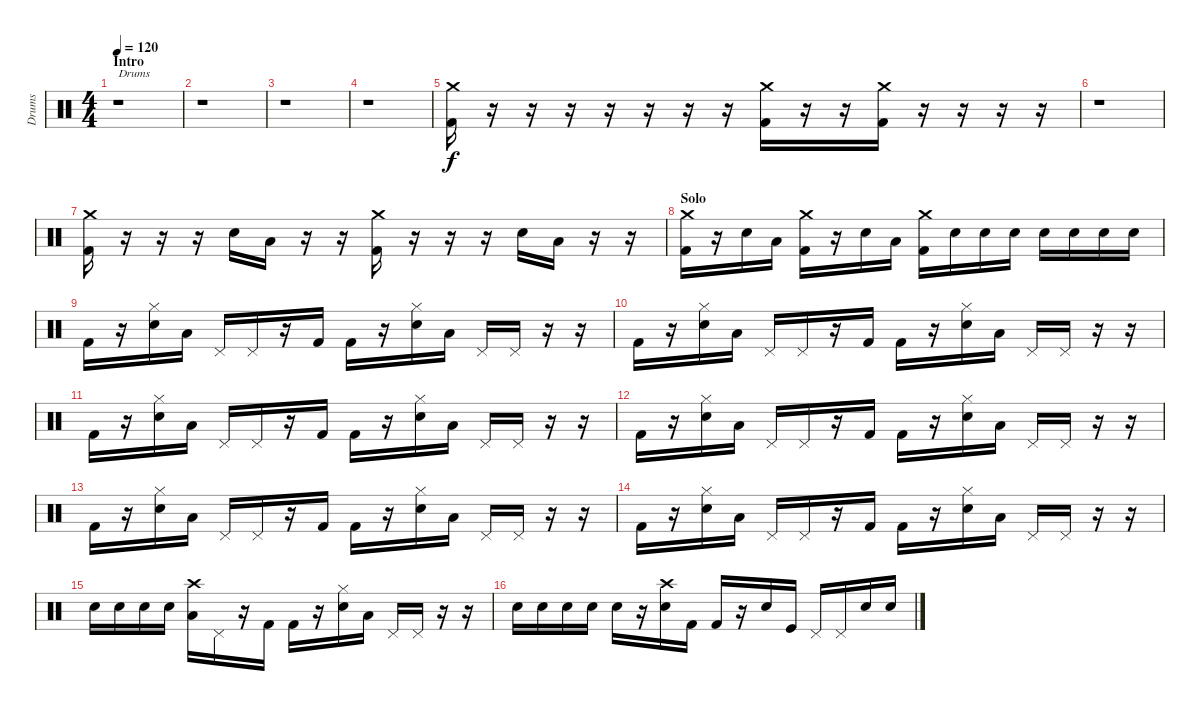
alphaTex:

\track ("Drums" "Drums") {instrument percussion}
\staff {score}
\articulation defaults
\ts (4 4)
\section ("" "Intro")
\tempo 120
\clef neutral
\ks c
r.1{txt "Drums" dy f} |
r.1 |
r.1 |
r.1 |
("Crash medium (hit)" "Kick (hit) 2").16 r.16 r.16 r.16 r.16 r.16 r.16 r.16 ("Crash medium (hit)" "Kick (hit) 2").16 r.16 r.16 ("Crash medium (hit)" "Kick (hit) 2").16 r.16 r.16 r.16 r.16 |
r.1 |
("Crash medium (hit)" "Kick (hit) 2").16 r.16 r.16 r.16 "Snare (hit) 2".16 "Low Tom (hit)".16 r.16 r.16 ("Crash medium (hit)" "Kick (hit) 2").16 r.16 r.16 r.16 "Snare (hit) 2".16 "Low Tom (hit)".16 r.16 r.16 |
\section ("" "Solo")
("Crash medium (hit)" "Kick (hit) 2").16 r.16 "Snare (hit) 2".16 "Low Tom (hit)".16 ("Crash medium (hit)" "Kick (hit) 2").16 r.16 "Snare (hit) 2".16 "Low Tom (hit)".16 ("Crash medium (hit)" "Kick (hit) 2").16 "Snare (hit) 2".16 "Snare (hit) 2".16 "Snare (hit) 2".16 "Snare (hit) 2".16 "Snare (hit) 2".16 "Snare (hit) 2".16 "Snare (hit) 2".16 |
"Kick (hit) 2".16 r.16 ("Hi-Hat (closed)" "Snare (hit) 2").16 "Low Tom (hit)".16 "Pedal Hi-Hat (hit)".16 "Pedal Hi-Hat (hit)".16 r.16 "Kick (hit) 2".16 "Kick (hit) 2".16 r.16 ("Hi-Hat (closed)" "Snare (hit) 2").16 "Low Tom (hit)".16 "Pedal Hi-Hat (hit)".16 "Pedal Hi-Hat (hit)".16 r.16 r.16 |
"Kick (hit) 2".16 r.16 ("Hi-Hat (closed)" "Snare (hit) 2").16 "Low Tom (hit)".16 "Pedal Hi-Hat (hit)".16 "Pedal Hi-Hat (hit)".16 r.16 "Kick (hit) 2".16 "Kick (hit) 2".16 r.16 ("Hi-Hat (closed)" "Snare (hit) 2").16 "Low Tom (hit)".16 "Pedal Hi-Hat (hit)".16 "Pedal Hi-Hat (hit)".16 r.16 r.16 |
"Kick (hit) 2".16 r.16 ("Hi-Hat (closed)" "Snare (hit) 2").16 "Low Tom (hit)".16 "Pedal Hi-Hat (hit)".16 "Pedal Hi-Hat (hit)".16 r.16 "Kick (hit) 2".16 "Kick (hit) 2".16 r.16 ("Hi-Hat (closed)" "Snare (hit) 2").16 "Low Tom (hit)".16 "Pedal Hi-Hat (hit)".16 "Pedal Hi-Hat (hit)".16 r.16 r.16 |
"Kick (hit) 2".16 r.16 ("Hi-Hat (closed)" "Snare (hit) 2").16 "Low Tom (hit)".16 "Pedal Hi-Hat (hit)".16 "Pedal Hi-Hat (hit)".16 r.16 "Kick (hit) 2".16 "Kick (hit) 2".16 r.16 ("Hi-Hat (closed)" "Snare (hit) 2").16 "Low Tom (hit)".16 "Pedal Hi-Hat (hit)".16 "Pedal Hi-Hat (hit)".16 r.16 r.16 |
"Kick (hit) 2".16 r.16 ("Hi-Hat (closed)" "Snare (hit) 2").16 "Low Tom (hit)".16 "Pedal Hi-Hat (hit)".16 "Pedal Hi-Hat (hit)".16 r.16 "Kick (hit) 2".16 "Kick (hit) 2".16 r.16 ("Hi-Hat (closed)" "Snare (hit) 2").16 "Low Tom (hit)".16 "Pedal Hi-Hat (hit)".16 "Pedal Hi-Hat (hit)".16 r.16 r.16 |
"Kick (hit) 2".16 r.16 ("Hi-Hat (closed)" "Snare (hit) 2").16 "Low Tom (hit)".16 "Pedal Hi-Hat (hit)".16 "Pedal Hi-Hat (hit)".16 r.16 "Kick (hit) 2".16 "Kick (hit) 2".16 r.16 ("Hi-Hat (closed)" "Snare (hit) 2").16 "Low Tom (hit)".16 "Pedal Hi-Hat (hit)".16 "Pedal Hi-Hat (hit)".16 r.16 r.16 |
"Snare (hit) 2".16 "Snare (hit) 2".16 "Snare (hit) 2".16 "Snare (hit) 2".16 ("Crash high (hit)" "Low Tom (hit)").16 "Pedal Hi-Hat (hit)".16 r.16 "Kick (hit) 2".16 "Kick (hit) 2".16 r.16 ("Hi-Hat (closed)" "Snare (hit) 2").16 "Low Tom (hit)".16 "Pedal Hi-Hat (hit)".16 "Pedal Hi-Hat (hit)".16 r.16 r.16 |
"Snare (hit) 2".16 "Snare (hit) 2".16 "Snare (hit) 2".16 "Snare (hit) 2".16 "Snare (hit) 2".16 r.16 ("Crash high (hit)" "Snare (hit) 2").16 "Kick (hit) 2".16 "Kick (hit) 2".16 r.16 "Snare (hit) 2".16 "Kick (hit)".16 "Pedal Hi-Hat (hit)".16 "Pedal Hi-Hat (hit)".16 "Snare (hit) 2".16 "Snare (hit) 2".16
